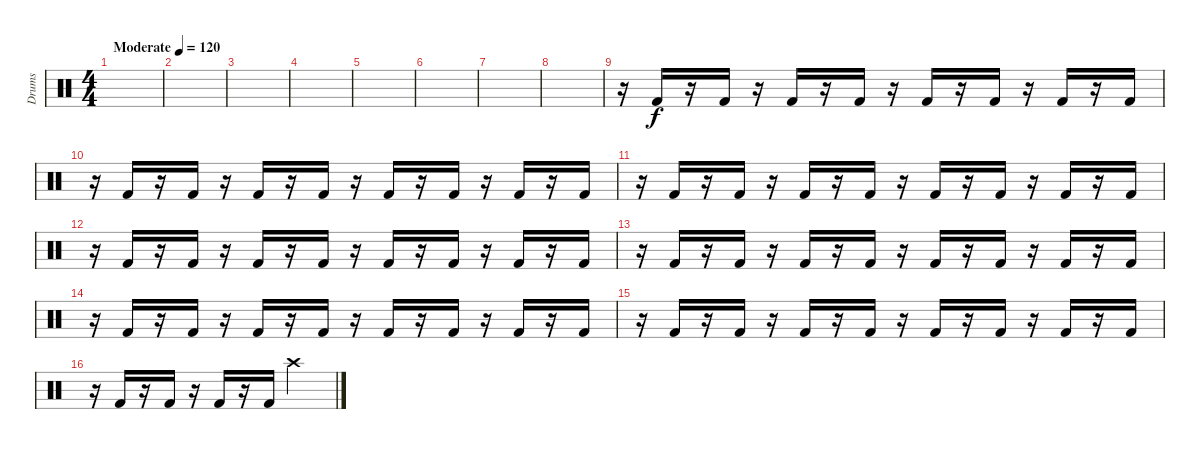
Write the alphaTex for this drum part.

\track ("Drums" "Drums") {instrument percussion}
\staff {score}
\articulation defaults
\ts (4 4)
\tempo (120 "Moderate")
\clef neutral
\ks c
|
|
|
|
|
|
|
|
r.16 "Kick (hit) 2".16 r.16 "Kick (hit) 2".16 r.16 "Kick (hit) 2".16 r.16 "Kick (hit) 2".16 r.16 "Kick (hit) 2".16 r.16 "Kick (hit) 2".16 r.16 "Kick (hit) 2".16 r.16 "Kick (hit) 2".16 |
r.16 "Kick (hit) 2".16 r.16 "Kick (hit) 2".16 r.16 "Kick (hit) 2".16 r.16 "Kick (hit) 2".16 r.16 "Kick (hit) 2".16 r.16 "Kick (hit) 2".16 r.16 "Kick (hit) 2".16 r.16 "Kick (hit) 2".16 |
r.16 "Kick (hit) 2".16 r.16 "Kick (hit) 2".16 r.16 "Kick (hit) 2".16 r.16 "Kick (hit) 2".16 r.16 "Kick (hit) 2".16 r.16 "Kick (hit) 2".16 r.16 "Kick (hit) 2".16 r.16 "Kick (hit) 2".16 |
r.16 "Kick (hit) 2".16 r.16 "Kick (hit) 2".16 r.16 "Kick (hit) 2".16 r.16 "Kick (hit) 2".16 r.16 "Kick (hit) 2".16 r.16 "Kick (hit) 2".16 r.16 "Kick (hit) 2".16 r.16 "Kick (hit) 2".16 |
r.16 "Kick (hit) 2".16 r.16 "Kick (hit) 2".16 r.16 "Kick (hit) 2".16 r.16 "Kick (hit) 2".16 r.16 "Kick (hit) 2".16 r.16 "Kick (hit) 2".16 r.16 "Kick (hit) 2".16 r.16 "Kick (hit) 2".16 |
r.16 "Kick (hit) 2".16 r.16 "Kick (hit) 2".16 r.16 "Kick (hit) 2".16 r.16 "Kick (hit) 2".16 r.16 "Kick (hit) 2".16 r.16 "Kick (hit) 2".16 r.16 "Kick (hit) 2".16 r.16 "Kick (hit) 2".16 |
r.16 "Kick (hit) 2".16 r.16 "Kick (hit) 2".16 r.16 "Kick (hit) 2".16 r.16 "Kick (hit) 2".16 r.16 "Kick (hit) 2".16 r.16 "Kick (hit) 2".16 r.16 "Kick (hit) 2".16 r.16 "Kick (hit) 2".16 |
r.16 "Kick (hit) 2".16 r.16 "Kick (hit) 2".16 r.16 "Kick (hit) 2".16 r.16 "Kick (hit) 2".16 "Crash high (hit)".2
